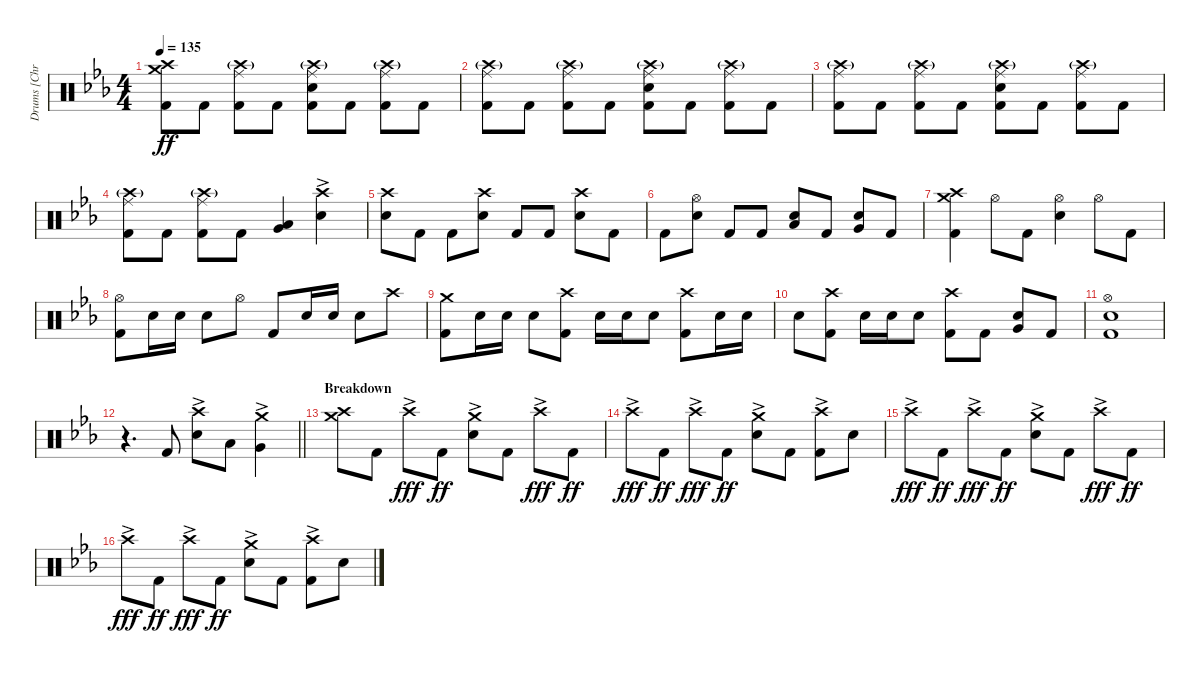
\track ("Drums [Chris Hornbrook]" "Drums [Chr") {instrument percussion}
\staff {score}
\articulation defaults
\ts (4 4)
\tempo 135
\clef neutral
\ks cminor
("Crash medium (hit)" "Crash high (hit)" "Kick (hit) 2").8{dy ff} "Kick (hit) 2".8 ("Crash high (hit)"{g} "Ride (middle)" "Kick (hit) 2").8 "Kick (hit) 2".8 ("Crash high (hit)"{g} "Ride (middle)" "Electric Snare (hit)" "Kick (hit) 2").8 "Kick (hit) 2".8 ("Crash high (hit)"{g} "Ride (middle)" "Kick (hit) 2").8 "Kick (hit) 2".8 |
("Crash high (hit)"{g} "Ride (middle)" "Kick (hit) 2").8 "Kick (hit) 2".8 ("Crash high (hit)"{g} "Ride (middle)" "Kick (hit) 2").8 "Kick (hit) 2".8 ("Crash high (hit)"{g} "Ride (middle)" "Electric Snare (hit)" "Kick (hit) 2").8 "Kick (hit) 2".8 ("Crash high (hit)"{g} "Ride (middle)" "Kick (hit) 2").8 "Kick (hit) 2".8 |
("Crash high (hit)"{g} "Ride (middle)" "Kick (hit) 2").8 "Kick (hit) 2".8 ("Crash high (hit)"{g} "Ride (middle)" "Kick (hit) 2").8 "Kick (hit) 2".8 ("Crash high (hit)"{g} "Ride (middle)" "Electric Snare (hit)" "Kick (hit) 2").8 "Kick (hit) 2".8 ("Crash high (hit)"{g} "Ride (middle)" "Kick (hit) 2").8 "Kick (hit) 2".8 |
("Crash high (hit)"{g} "Ride (middle)" "Kick (hit) 2").8 "Kick (hit) 2".8 ("Crash high (hit)"{g} "Ride (middle)" "Kick (hit) 2").8 "Kick (hit) 2".8 ("Very Low Tom (hit)" "Low Floor Tom (hit)").4{bu 60} ("Crash high (hit)"{ac} "Electric Snare (hit)").4 |
("Crash high (hit)" "Electric Snare (hit)").8 "Kick (hit) 2".8 "Kick (hit) 2".8 ("Crash high (hit)" "Electric Snare (hit)").8 "Kick (hit) 2".8 "Kick (hit) 2".8 ("Crash high (hit)" "Electric Snare (hit)").8 "Kick (hit) 2".8 |
"Kick (hit) 2".8 ("Hi-Hat (open)" "Electric Snare (hit)").8 "Kick (hit) 2".8 "Kick (hit) 2".8 ("Low Tom (hit)" "Electric Snare (hit)").8{bu 60} "Kick (hit) 2".8 ("Very Low Tom (hit)" "Electric Snare (hit)").8{bu 60} "Kick (hit) 2".8 |
("Crash medium (hit)" "Crash high (hit)" "Kick (hit) 2").4 "Hi-Hat (open)".8 "Kick (hit) 2".8 ("Hi-Hat (open)" "Electric Snare (hit)").4 "Hi-Hat (open)".8 "Kick (hit) 2".8 |
("Hi-Hat (open)" "Kick (hit) 2").8 "Electric Snare (hit)".16 "Electric Snare (hit)".16 "Electric Snare (hit)".8 "Hi-Hat (open)".8 "Kick (hit) 2".8 "Electric Snare (hit)".16 "Electric Snare (hit)".16 "Electric Snare (hit)".8 "Crash high (hit)".8 |
("Crash medium (hit)" "Kick (hit) 2").8 "Electric Snare (hit)".16 "Electric Snare (hit)".16 "Electric Snare (hit)".8 ("Crash high (hit)" "Kick (hit) 2").8 "Electric Snare (hit)".16 "Electric Snare (hit)".16 "Electric Snare (hit)".8 ("Crash high (hit)" "Kick (hit) 2").8 "Electric Snare (hit)".16 "Electric Snare (hit)".16 |
"Electric Snare (hit)".8 ("Crash high (hit)" "Kick (hit) 2").8 "Electric Snare (hit)".16 "Electric Snare (hit)".16 "Electric Snare (hit)".8 ("Crash high (hit)" "Kick (hit) 2").8 "Kick (hit) 2".8 ("Very Low Tom (hit)" "Electric Snare (hit)").8{bu 60} "Kick (hit) 2".8 |
("Hi-Hat (open)" "Electric Snare (hit)" "Kick (hit) 2").1 |
\barLineRight lightlight
r.4{d} "Kick (hit) 2".8 ("Crash high (hit)"{ac} "Electric Snare (hit)").8 "Low Tom (hit)".8 ("Crash medium (hit)"{ac} "Very Low Tom (hit)").4 |
\section ("" "Breakdown")
("Crash medium (hit)" "Crash high (hit)").8 "Kick (hit) 2".8 "Crash high (hit)"{ac}.8{dy fff} "Kick (hit) 2".8{dy ff} ("Crash medium (hit)"{ac} "Electric Snare (hit)").8 "Kick (hit) 2".8 "Crash high (hit)"{ac}.8{dy fff} "Kick (hit) 2".8{dy ff} |
"Crash high (hit)"{ac}.8{dy fff} "Kick (hit) 2".8{dy ff} "Crash high (hit)"{ac}.8{dy fff} "Kick (hit) 2".8{dy ff} ("Crash medium (hit)"{ac} "Electric Snare (hit)").8 "Kick (hit) 2".8 ("Crash high (hit)"{ac} "Kick (hit) 2").8 "Electric Snare (hit)".8 |
"Crash high (hit)"{ac}.8{dy fff} "Kick (hit) 2".8{dy ff} "Crash high (hit)"{ac}.8{dy fff} "Kick (hit) 2".8{dy ff} ("Crash medium (hit)"{ac} "Electric Snare (hit)").8 "Kick (hit) 2".8 "Crash high (hit)"{ac}.8{dy fff} "Kick (hit) 2".8{dy ff} |
"Crash high (hit)"{ac}.8{dy fff} "Kick (hit) 2".8{dy ff} "Crash high (hit)"{ac}.8{dy fff} "Kick (hit) 2".8{dy ff} ("Crash medium (hit)"{ac} "Electric Snare (hit)").8 "Kick (hit) 2".8 ("Crash high (hit)"{ac} "Kick (hit) 2").8 "Electric Snare (hit)".8
